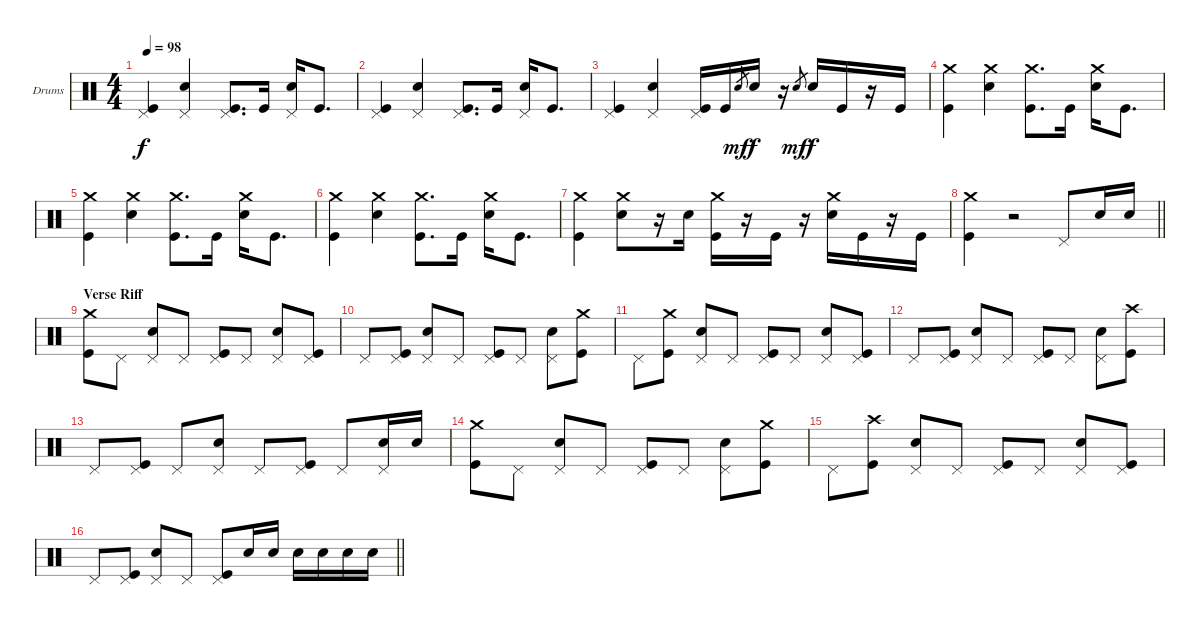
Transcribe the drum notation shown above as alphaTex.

\bracketExtendMode groupsimilarinstruments
\firstSystemTrackNameOrientation horizontal
\otherSystemsTrackNameOrientation horizontal
\track ("Drumkit" "Drums") {instrument percussion}
\staff {score}
\articulation defaults
\ts (4 4)
\tempo 98
\clef neutral
\ks c
("Pedal Hi-Hat (hit)" "Kick (hit)").4{dy f} ("Pedal Hi-Hat (hit)" "Snare (hit) 2").4 ("Pedal Hi-Hat (hit)" "Kick (hit)").8{d} "Kick (hit)".16 ("Pedal Hi-Hat (hit)" "Snare (hit) 2").16 "Kick (hit)".8{d} |
("Pedal Hi-Hat (hit)" "Kick (hit)").4 ("Pedal Hi-Hat (hit)" "Snare (hit) 2").4 ("Pedal Hi-Hat (hit)" "Kick (hit)").8{d} "Kick (hit)".16 ("Pedal Hi-Hat (hit)" "Snare (hit) 2").16 "Kick (hit)".8{d} |
("Pedal Hi-Hat (hit)" "Kick (hit)").4 ("Pedal Hi-Hat (hit)" "Snare (hit) 2").4 ("Pedal Hi-Hat (hit)" "Kick (hit)").16 "Kick (hit)".16 "Snare (hit) 2".8{gr dy mf} "Snare (hit) 2".16{dy f} r.16 "Snare (hit) 2".8{gr dy mf} "Snare (hit) 2".16{dy f} "Kick (hit)".16 r.16 "Kick (hit)".16 |
("Crash medium (hit)" "Kick (hit)").4 ("Crash medium (hit)" "Snare (hit) 2").4 ("Crash medium (hit)" "Kick (hit)").8{d} "Kick (hit)".16 ("Crash medium (hit)" "Snare (hit) 2").16 "Kick (hit)".8{d} |
("Crash medium (hit)" "Kick (hit)").4 ("Crash medium (hit)" "Snare (hit) 2").4 ("Crash medium (hit)" "Kick (hit)").8{d} "Kick (hit)".16 ("Crash medium (hit)" "Snare (hit) 2").16 "Kick (hit)".8{d} |
("Crash medium (hit)" "Kick (hit)").4 ("Crash medium (hit)" "Snare (hit) 2").4 ("Crash medium (hit)" "Kick (hit)").8{d} "Kick (hit)".16 ("Crash medium (hit)" "Snare (hit) 2").16 "Kick (hit)".8{d} |
("Crash medium (hit)" "Kick (hit)").4 ("Crash medium (hit)" "Snare (hit) 2").8 r.16 "Snare (hit) 2".16 ("Crash medium (hit)" "Kick (hit)").16 r.16 "Kick (hit)".16 r.16 ("Crash medium (hit)" "Snare (hit) 2").16 "Kick (hit)".16 r.16 "Kick (hit)".16 |
\barLineRight lightlight
("Crash medium (hit)" "Kick (hit)").4 r.2 "Pedal Hi-Hat (hit)".8 "Snare (hit) 2".16 "Snare (hit) 2".16 |
\section ("" "Verse Riff")
("Crash medium (hit)" "Kick (hit)").8 "Pedal Hi-Hat (hit)".8 ("Pedal Hi-Hat (hit)" "Snare (hit) 2").8 "Pedal Hi-Hat (hit)".8 ("Pedal Hi-Hat (hit)" "Kick (hit)").8 "Pedal Hi-Hat (hit)".8 ("Pedal Hi-Hat (hit)" "Snare (hit) 2").8 ("Pedal Hi-Hat (hit)" "Kick (hit)").8 |
"Pedal Hi-Hat (hit)".8 ("Pedal Hi-Hat (hit)" "Kick (hit)").8 ("Pedal Hi-Hat (hit)" "Snare (hit) 2").8 "Pedal Hi-Hat (hit)".8 ("Pedal Hi-Hat (hit)" "Kick (hit)").8 "Pedal Hi-Hat (hit)".8 ("Pedal Hi-Hat (hit)" "Snare (hit) 2").8 ("Crash medium (hit)" "Kick (hit)").8 |
"Pedal Hi-Hat (hit)".8 ("Crash medium (hit)" "Kick (hit)").8 ("Pedal Hi-Hat (hit)" "Snare (hit) 2").8 "Pedal Hi-Hat (hit)".8 ("Pedal Hi-Hat (hit)" "Kick (hit)").8 "Pedal Hi-Hat (hit)".8 ("Pedal Hi-Hat (hit)" "Snare (hit) 2").8 ("Pedal Hi-Hat (hit)" "Kick (hit)").8 |
"Pedal Hi-Hat (hit)".8 ("Pedal Hi-Hat (hit)" "Kick (hit)").8 ("Pedal Hi-Hat (hit)" "Snare (hit) 2").8 "Pedal Hi-Hat (hit)".8 ("Pedal Hi-Hat (hit)" "Kick (hit)").8 "Pedal Hi-Hat (hit)".8 ("Pedal Hi-Hat (hit)" "Snare (hit) 2").8 ("Crash high (hit)" "Kick (hit)").8 |
"Pedal Hi-Hat (hit)".8 ("Pedal Hi-Hat (hit)" "Kick (hit)").8 "Pedal Hi-Hat (hit)".8 ("Pedal Hi-Hat (hit)" "Snare (hit) 2").8 "Pedal Hi-Hat (hit)".8 ("Pedal Hi-Hat (hit)" "Kick (hit)").8 "Pedal Hi-Hat (hit)".8 ("Pedal Hi-Hat (hit)" "Snare (hit) 2").16 "Snare (hit) 2".16 |
("Crash medium (hit)" "Kick (hit)").8 "Pedal Hi-Hat (hit)".8 ("Pedal Hi-Hat (hit)" "Snare (hit) 2").8 "Pedal Hi-Hat (hit)".8 ("Pedal Hi-Hat (hit)" "Kick (hit)").8 "Pedal Hi-Hat (hit)".8 ("Pedal Hi-Hat (hit)" "Snare (hit) 2").8 ("Crash medium (hit)" "Kick (hit)").8 |
"Pedal Hi-Hat (hit)".8 ("Crash high (hit)" "Kick (hit)").8 ("Pedal Hi-Hat (hit)" "Snare (hit) 2").8 "Pedal Hi-Hat (hit)".8 ("Pedal Hi-Hat (hit)" "Kick (hit)").8 "Pedal Hi-Hat (hit)".8 ("Pedal Hi-Hat (hit)" "Snare (hit) 2").8 ("Pedal Hi-Hat (hit)" "Kick (hit)").8 |
\barLineRight lightlight "Pedal Hi-Hat (hit)".8
("Pedal Hi-Hat (hit)" "Kick (hit)").8 ("Pedal Hi-Hat (hit)" "Snare (hit) 2").8 "Pedal Hi-Hat (hit)".8 ("Pedal Hi-Hat (hit)" "Kick (hit)").8 "Snare (hit) 2".16 "Snare (hit) 2".16 "Snare (hit) 2".16 "Snare (hit) 2".16 "Snare (hit) 2".16 "Snare (hit) 2".16
